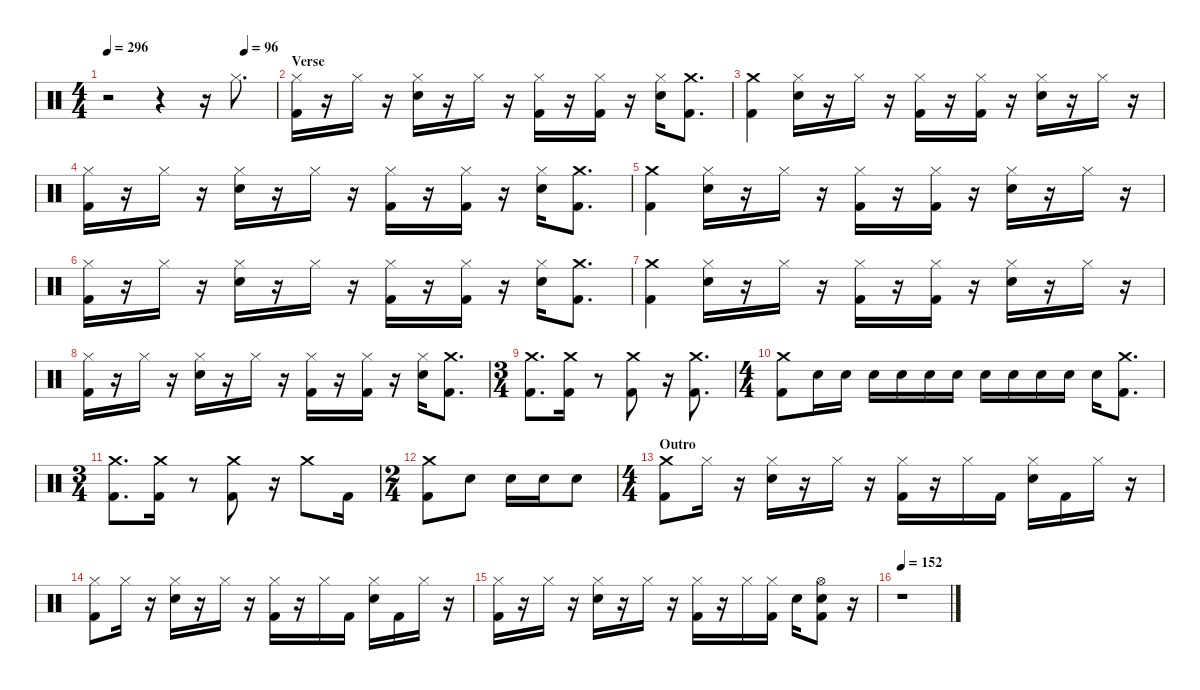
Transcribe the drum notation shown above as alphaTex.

\hideDynamics
\bracketExtendMode nobrackets
\singleTrackTrackNamePolicy hidden
\multiTrackTrackNamePolicy hidden
\firstSystemTrackNameMode fullname
\firstSystemTrackNameOrientation horizontal
\otherSystemsTrackNameOrientation horizontal
\track ("Drumkit" "Drums") {instrument percussion}
\staff {score}
\articulation defaults
\ts (4 4)
\tempo 296
\tempo (96 0.8125)
\clef neutral
\ks c
r.2{dy f beam Down} r.4{beam Down} r.16{beam Down} "Hi-Hat (closed)".8{d beam Down} |
\section ("" "Verse")
("Hi-Hat (closed)" "Kick (hit) 2").16{beam Down} r.16{beam Down} "Hi-Hat (closed)".16{beam Down} r.16{beam Down} ("Snare (hit) 2" "Hi-Hat (closed)").16{beam Down} r.16{beam Down} "Hi-Hat (closed)".16{beam Down} r.16{beam Down} ("Kick (hit) 2" "Hi-Hat (closed)").16{beam Down} r.16{beam Down} ("Kick (hit) 2" "Hi-Hat (closed)").16{beam Down} r.16{beam Down} ("Hi-Hat (closed)" "Snare (hit) 2").16{beam Down} ("Crash medium (hit)" "Kick (hit) 2").8{d beam Down} |
\scale
0.240586 ("Crash medium (hit)" "Kick (hit) 2").4{beam Down} ("Snare (hit) 2" "Hi-Hat (closed)").16{beam Down} r.16{beam Down} "Hi-Hat (closed)".16{beam Down} r.16{beam Down} ("Kick (hit) 2" "Hi-Hat (closed)").16{beam Down} r.16{beam Down} ("Kick (hit) 2" "Hi-Hat (closed)").16{beam Down} r.16{beam Down} ("Snare (hit) 2" "Hi-Hat (closed)").16{beam Down} r.16{beam Down} "Hi-Hat (closed)".16{beam Down} r.16{beam Down} |
\scale
0.213551 ("Hi-Hat (closed)" "Kick (hit) 2").16{beam Down} r.16{beam Down} "Hi-Hat (closed)".16{beam Down} r.16{beam Down} ("Snare (hit) 2" "Hi-Hat (closed)").16{beam Down} r.16{beam Down} "Hi-Hat (closed)".16{beam Down} r.16{beam Down} ("Hi-Hat (closed)" "Kick (hit) 2").16{beam Down} r.16{beam Down} ("Kick (hit) 2" "Hi-Hat (closed)").16{beam Down} r.16{beam Down} ("Hi-Hat (closed)" "Snare (hit) 2").16{beam Down} ("Crash medium (hit)" "Kick (hit) 2").8{d beam Down} |
\scale
0.286412 ("Crash medium (hit)" "Kick (hit) 2").4{beam Down} ("Snare (hit) 2" "Hi-Hat (closed)").16{beam Down} r.16{beam Down} "Hi-Hat (closed)".16{beam Down} r.16{beam Down} ("Kick (hit) 2" "Hi-Hat (closed)").16{beam Down} r.16{beam Down} ("Kick (hit) 2" "Hi-Hat (closed)").16{beam Down} r.16{beam Down} ("Snare (hit) 2" "Hi-Hat (closed)").16{beam Down} r.16{beam Down} "Hi-Hat (closed)".16{beam Down} r.16{beam Down} |
\scale
0.259414 ("Hi-Hat (closed)" "Kick (hit) 2").16{beam Down} r.16{beam Down} "Hi-Hat (closed)".16{beam Down} r.16{beam Down} ("Snare (hit) 2" "Hi-Hat (closed)").16{beam Down} r.16{beam Down} "Hi-Hat (closed)".16{beam Down} r.16{beam Down} ("Hi-Hat (closed)" "Kick (hit) 2").16{beam Down} r.16{beam Down} ("Kick (hit) 2" "Hi-Hat (closed)").16{beam Down} r.16{beam Down} ("Hi-Hat (closed)" "Snare (hit) 2").16{beam Down} ("Crash medium (hit)" "Kick (hit) 2").8{d beam Down} |
("Crash medium (hit)" "Kick (hit) 2").4{beam Down} ("Snare (hit) 2" "Hi-Hat (closed)").16{beam Down} r.16{beam Down} "Hi-Hat (closed)".16{beam Down} r.16{beam Down} ("Kick (hit) 2" "Hi-Hat (closed)").16{beam Down} r.16{beam Down} ("Kick (hit) 2" "Hi-Hat (closed)").16{beam Down} r.16{beam Down} ("Snare (hit) 2" "Hi-Hat (closed)").16{beam Down} r.16{beam Down} "Hi-Hat (closed)".16{beam Down} r.16{beam Down} |
("Hi-Hat (closed)" "Kick (hit) 2").16{beam Down} r.16{beam Down} "Hi-Hat (closed)".16{beam Down} r.16{beam Down} ("Hi-Hat (closed)" "Snare (hit) 2").16{beam Down} r.16{beam Down} "Hi-Hat (closed)".16{beam Down} r.16{beam Down} ("Hi-Hat (closed)" "Kick (hit) 2").16{beam Down} r.16{beam Down} ("Hi-Hat (closed)" "Kick (hit) 2").16{beam Down} r.16{beam Down} ("Hi-Hat (closed)" "Snare (hit) 2").16{beam Down} ("Crash medium (hit)" "Kick (hit) 2").8{d beam Down} |
\ts (3 4)
("Crash medium (hit)" "Kick (hit) 2").8{d beam Down} ("Crash medium (hit)" "Kick (hit) 2").16{beam Down} r.8{beam Down} ("Crash medium (hit)" "Kick (hit) 2").8{beam Down} r.16{beam Down} ("Crash medium (hit)" "Kick (hit) 2").8{d beam Down} |
\ts (4 4)
("Crash medium (hit)" "Kick (hit) 2").8{beam Down} "Snare (hit) 2".16{beam Down} "Snare (hit) 2".16{beam Down} "Snare (hit) 2".16{beam Down} "Snare (hit) 2".16{beam Down} "Snare (hit) 2".16{beam Down} "Snare (hit) 2".16{beam Down} "Snare (hit) 2".16{beam Down} "Snare (hit) 2".16{beam Down} "Snare (hit) 2".16{beam Down} "Snare (hit) 2".16{beam Down} "Snare (hit) 2".16{beam Down} ("Crash medium (hit)" "Kick (hit) 2").8{d beam Down} |
\ts (3 4)
("Crash medium (hit)" "Kick (hit) 2").8{d beam Down} ("Crash medium (hit)" "Kick (hit) 2").16{beam Down} r.8{beam Down} ("Crash medium (hit)" "Kick (hit) 2").8{beam Down} r.16{beam Down} "Crash medium (hit)".8{beam Down} "Kick (hit) 2".16{beam Down} |
\ts (2 4)
("Crash medium (hit)" "Kick (hit) 2").8{beam Down} "Snare (hit) 2".8{beam Down} "Snare (hit) 2".16{beam Down} "Snare (hit) 2".16{beam Down} "Snare (hit) 2".8{beam Down} |
\ts (4 4)
\section ("" "Outro")
("Crash medium (hit)" "Kick (hit) 2").8{beam Down} "Hi-Hat (closed)".16{beam Down} r.16{beam Down} ("Snare (hit) 2" "Hi-Hat (closed)").16{beam Down} r.16{beam Down} "Hi-Hat (closed)".16{beam Down} r.16{beam Down} ("Kick (hit) 2" "Hi-Hat (closed)").16{beam Down} r.16{beam Down} "Hi-Hat (closed)".16{beam Down} "Kick (hit) 2".16{beam Down} ("Snare (hit) 2" "Hi-Hat (closed)").16{beam Down} "Kick (hit) 2".16{beam Down} "Hi-Hat (closed)".16{beam Down} r.16{beam Down} |
("Kick (hit) 2" "Hi-Hat (closed)").8{beam Down} "Hi-Hat (closed)".16{beam Down} r.16{beam Down} ("Snare (hit) 2" "Hi-Hat (closed)").16{beam Down} r.16{beam Down} "Hi-Hat (closed)".16{beam Down} r.16{beam Down} ("Kick (hit) 2" "Hi-Hat (closed)").16{beam Down} r.16{beam Down} "Hi-Hat (closed)".16{beam Down} "Kick (hit) 2".16{beam Down} ("Snare (hit) 2" "Hi-Hat (closed)").16{beam Down} "Kick (hit) 2".16{beam Down} "Hi-Hat (closed)".16{beam Down} r.16{beam Down} |
("Hi-Hat (closed)" "Kick (hit) 2").16{beam Down} r.16{beam Down} "Hi-Hat (closed)".16{beam Down} r.16{beam Down} ("Hi-Hat (closed)" "Snare (hit) 2").16{beam Down} r.16{beam Down} "Hi-Hat (closed)".16{beam Down} r.16{beam Down} ("Kick (hit) 2" "Hi-Hat (closed)").16{beam Down} r.16{beam Down} "Hi-Hat (closed)".16{beam Down} ("Kick (hit) 2" "Hi-Hat (closed)").16{beam Down} "Snare (hit) 2".16{beam Down} ("Hi-Hat (open)" "Snare (hit) 2" "Kick (hit) 2").8{dy ff beam Down} r.16{beam Down} |
\tempo 152
r.1{beam Down}
